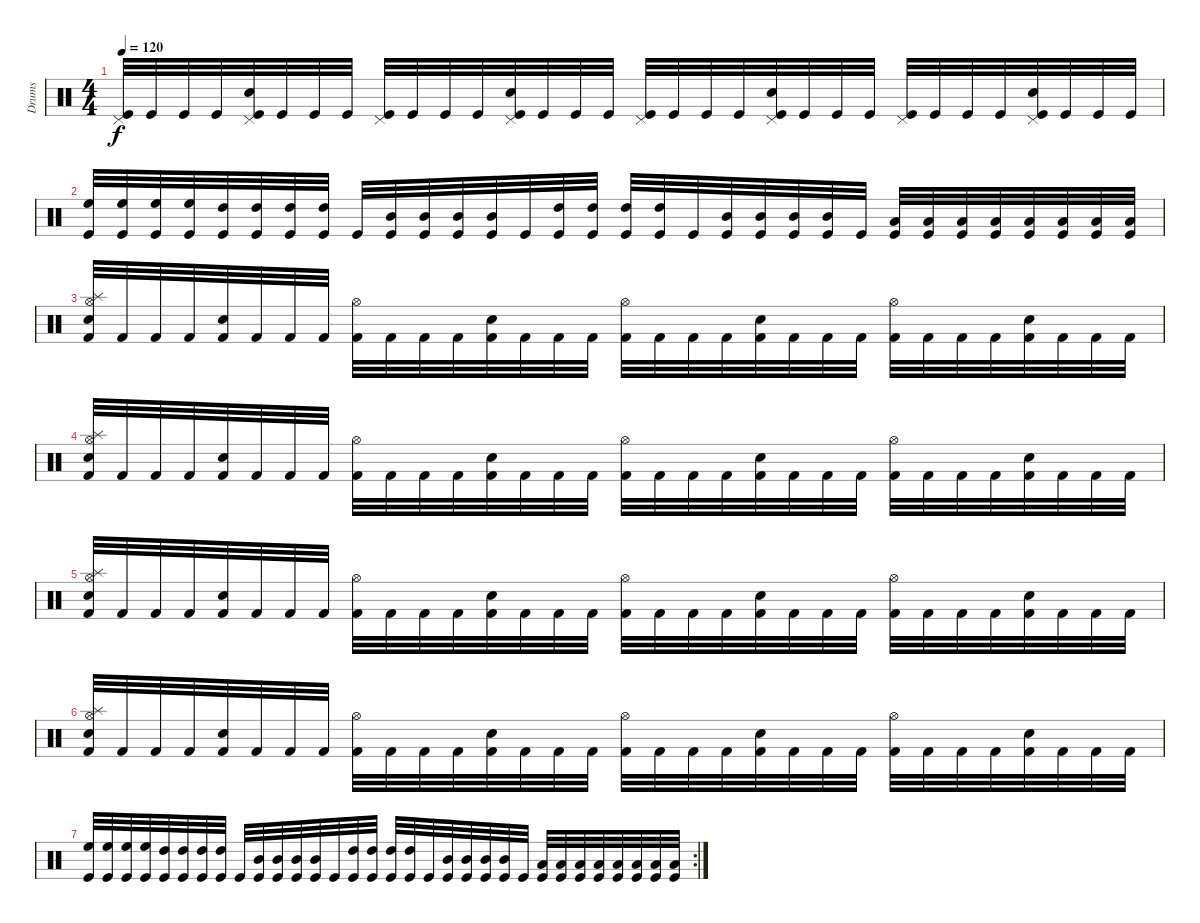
\track ("Drums" "Drums") {instrument percussion}
\staff {score}
\articulation defaults
\ts (4 4)
\tempo 120
\clef neutral
\ks c
("Kick (hit)" "Pedal Hi-Hat (hit)").32{dy f} "Kick (hit)".32 "Kick (hit)".32 "Kick (hit)".32 ("Kick (hit)" "Snare (hit) 2" "Pedal Hi-Hat (hit)").32 "Kick (hit)".32 "Kick (hit)".32 "Kick (hit)".32 ("Kick (hit)" "Pedal Hi-Hat (hit)").32 "Kick (hit)".32 "Kick (hit)".32 "Kick (hit)".32 ("Kick (hit)" "Snare (hit) 2" "Pedal Hi-Hat (hit)").32 "Kick (hit)".32 "Kick (hit)".32 "Kick (hit)".32 ("Kick (hit)" "Pedal Hi-Hat (hit)").32 "Kick (hit)".32 "Kick (hit)".32 "Kick (hit)".32 ("Kick (hit)" "Snare (hit) 2" "Pedal Hi-Hat (hit)").32 "Kick (hit)".32 "Kick (hit)".32 "Kick (hit)".32 ("Kick (hit)" "Pedal Hi-Hat (hit)").32 "Kick (hit)".32 "Kick (hit)".32 "Kick (hit)".32 ("Kick (hit)" "Snare (hit) 2" "Pedal Hi-Hat (hit)").32 "Kick (hit)".32 "Kick (hit)".32 "Kick (hit)".32 |
("Kick (hit)" "High Floor Tom (hit)").32 ("Kick (hit)" "High Floor Tom (hit)").32 ("Kick (hit)" "High Floor Tom (hit)").32 ("Kick (hit)" "High Floor Tom (hit)").32 ("Kick (hit)" "High Tom (hit)").32 ("Kick (hit)" "High Tom (hit)").32 ("Kick (hit)" "High Tom (hit)").32 ("Kick (hit)" "High Tom (hit)").32 "Kick (hit)".32 ("Kick (hit)" "Mid Tom (hit)").32 ("Kick (hit)" "Mid Tom (hit)").32 ("Kick (hit)" "Mid Tom (hit)").32 ("Kick (hit)" "Mid Tom (hit)").32 "Kick (hit)".32 ("Kick (hit)" "High Tom (hit)").32 ("Kick (hit)" "High Tom (hit)").32 ("Kick (hit)" "High Tom (hit)").32 ("Kick (hit)" "High Tom (hit)").32 "Kick (hit)".32 ("Kick (hit)" "Mid Tom (hit)").32 ("Kick (hit)" "Mid Tom (hit)").32 ("Kick (hit)" "Mid Tom (hit)").32 ("Kick (hit)" "Mid Tom (hit)").32 "Kick (hit)".32 ("Kick (hit)" "Low Tom (hit)").32 ("Kick (hit)" "Low Tom (hit)").32 ("Kick (hit)" "Low Tom (hit)").32 ("Kick (hit)" "Low Tom (hit)").32 ("Kick (hit)" "Low Tom (hit)").32 ("Kick (hit)" "Low Tom (hit)").32 ("Kick (hit)" "Low Tom (hit)").32 ("Kick (hit)" "Low Tom (hit)").32 |
("Snare (hit) 2" "Splash (hit)" "Hi-Hat (open)" "Kick (hit) 2").32 "Kick (hit) 2".32 "Kick (hit) 2".32 "Kick (hit) 2".32 ("Snare (hit) 2" "Kick (hit) 2").32 "Kick (hit) 2".32 "Kick (hit) 2".32 "Kick (hit) 2".32 ("Hi-Hat (open)" "Kick (hit) 2").32 "Kick (hit) 2".32 "Kick (hit) 2".32 "Kick (hit) 2".32 ("Snare (hit) 2" "Kick (hit) 2").32 "Kick (hit) 2".32 "Kick (hit) 2".32 "Kick (hit) 2".32 ("Hi-Hat (open)" "Kick (hit) 2").32 "Kick (hit) 2".32 "Kick (hit) 2".32 "Kick (hit) 2".32 ("Snare (hit) 2" "Kick (hit) 2").32 "Kick (hit) 2".32 "Kick (hit) 2".32 "Kick (hit) 2".32 ("Hi-Hat (open)" "Kick (hit) 2").32 "Kick (hit) 2".32 "Kick (hit) 2".32 "Kick (hit) 2".32 ("Snare (hit) 2" "Kick (hit) 2").32 "Kick (hit) 2".32 "Kick (hit) 2".32 "Kick (hit) 2".32 |
("Snare (hit) 2" "Splash (hit)" "Hi-Hat (open)" "Kick (hit) 2").32 "Kick (hit) 2".32 "Kick (hit) 2".32 "Kick (hit) 2".32 ("Snare (hit) 2" "Kick (hit) 2").32 "Kick (hit) 2".32 "Kick (hit) 2".32 "Kick (hit) 2".32 ("Hi-Hat (open)" "Kick (hit) 2").32 "Kick (hit) 2".32 "Kick (hit) 2".32 "Kick (hit) 2".32 ("Snare (hit) 2" "Kick (hit) 2").32 "Kick (hit) 2".32 "Kick (hit) 2".32 "Kick (hit) 2".32 ("Hi-Hat (open)" "Kick (hit) 2").32 "Kick (hit) 2".32 "Kick (hit) 2".32 "Kick (hit) 2".32 ("Snare (hit) 2" "Kick (hit) 2").32 "Kick (hit) 2".32 "Kick (hit) 2".32 "Kick (hit) 2".32 ("Hi-Hat (open)" "Kick (hit) 2").32 "Kick (hit) 2".32 "Kick (hit) 2".32 "Kick (hit) 2".32 ("Snare (hit) 2" "Kick (hit) 2").32 "Kick (hit) 2".32 "Kick (hit) 2".32 "Kick (hit) 2".32 |
("Snare (hit) 2" "Splash (hit)" "Hi-Hat (open)" "Kick (hit) 2").32 "Kick (hit) 2".32 "Kick (hit) 2".32 "Kick (hit) 2".32 ("Snare (hit) 2" "Kick (hit) 2").32 "Kick (hit) 2".32 "Kick (hit) 2".32 "Kick (hit) 2".32 ("Hi-Hat (open)" "Kick (hit) 2").32 "Kick (hit) 2".32 "Kick (hit) 2".32 "Kick (hit) 2".32 ("Snare (hit) 2" "Kick (hit) 2").32 "Kick (hit) 2".32 "Kick (hit) 2".32 "Kick (hit) 2".32 ("Hi-Hat (open)" "Kick (hit) 2").32 "Kick (hit) 2".32 "Kick (hit) 2".32 "Kick (hit) 2".32 ("Snare (hit) 2" "Kick (hit) 2").32 "Kick (hit) 2".32 "Kick (hit) 2".32 "Kick (hit) 2".32 ("Hi-Hat (open)" "Kick (hit) 2").32 "Kick (hit) 2".32 "Kick (hit) 2".32 "Kick (hit) 2".32 ("Snare (hit) 2" "Kick (hit) 2").32 "Kick (hit) 2".32 "Kick (hit) 2".32 "Kick (hit) 2".32 |
("Snare (hit) 2" "Splash (hit)" "Hi-Hat (open)" "Kick (hit) 2").32 "Kick (hit) 2".32 "Kick (hit) 2".32 "Kick (hit) 2".32 ("Snare (hit) 2" "Kick (hit) 2").32 "Kick (hit) 2".32 "Kick (hit) 2".32 "Kick (hit) 2".32 ("Hi-Hat (open)" "Kick (hit) 2").32 "Kick (hit) 2".32 "Kick (hit) 2".32 "Kick (hit) 2".32 ("Snare (hit) 2" "Kick (hit) 2").32 "Kick (hit) 2".32 "Kick (hit) 2".32 "Kick (hit) 2".32 ("Hi-Hat (open)" "Kick (hit) 2").32 "Kick (hit) 2".32 "Kick (hit) 2".32 "Kick (hit) 2".32 ("Snare (hit) 2" "Kick (hit) 2").32 "Kick (hit) 2".32 "Kick (hit) 2".32 "Kick (hit) 2".32 ("Hi-Hat (open)" "Kick (hit) 2").32 "Kick (hit) 2".32 "Kick (hit) 2".32 "Kick (hit) 2".32 ("Snare (hit) 2" "Kick (hit) 2").32 "Kick (hit) 2".32 "Kick (hit) 2".32 "Kick (hit) 2".32 |
\rc 2
("Kick (hit)" "High Floor Tom (hit)").32 ("Kick (hit)" "High Floor Tom (hit)").32 ("Kick (hit)" "High Floor Tom (hit)").32 ("Kick (hit)" "High Floor Tom (hit)").32 ("Kick (hit)" "High Tom (hit)").32 ("Kick (hit)" "High Tom (hit)").32 ("Kick (hit)" "High Tom (hit)").32 ("Kick (hit)" "High Tom (hit)").32 "Kick (hit)".32 ("Kick (hit)" "Mid Tom (hit)").32 ("Kick (hit)" "Mid Tom (hit)").32 ("Kick (hit)" "Mid Tom (hit)").32 ("Kick (hit)" "Mid Tom (hit)").32 "Kick (hit)".32 ("Kick (hit)" "High Tom (hit)").32 ("Kick (hit)" "High Tom (hit)").32 ("Kick (hit)" "High Tom (hit)").32 ("Kick (hit)" "High Tom (hit)").32 "Kick (hit)".32 ("Kick (hit)" "Mid Tom (hit)").32 ("Kick (hit)" "Mid Tom (hit)").32 ("Kick (hit)" "Mid Tom (hit)").32 ("Kick (hit)" "Mid Tom (hit)").32 "Kick (hit)".32 ("Kick (hit)" "Low Tom (hit)").32 ("Kick (hit)" "Low Tom (hit)").32 ("Kick (hit)" "Low Tom (hit)").32 ("Kick (hit)" "Low Tom (hit)").32 ("Kick (hit)" "Low Tom (hit)").32 ("Kick (hit)" "Low Tom (hit)").32 ("Kick (hit)" "Low Tom (hit)").32 ("Kick (hit)" "Low Tom (hit)").32
